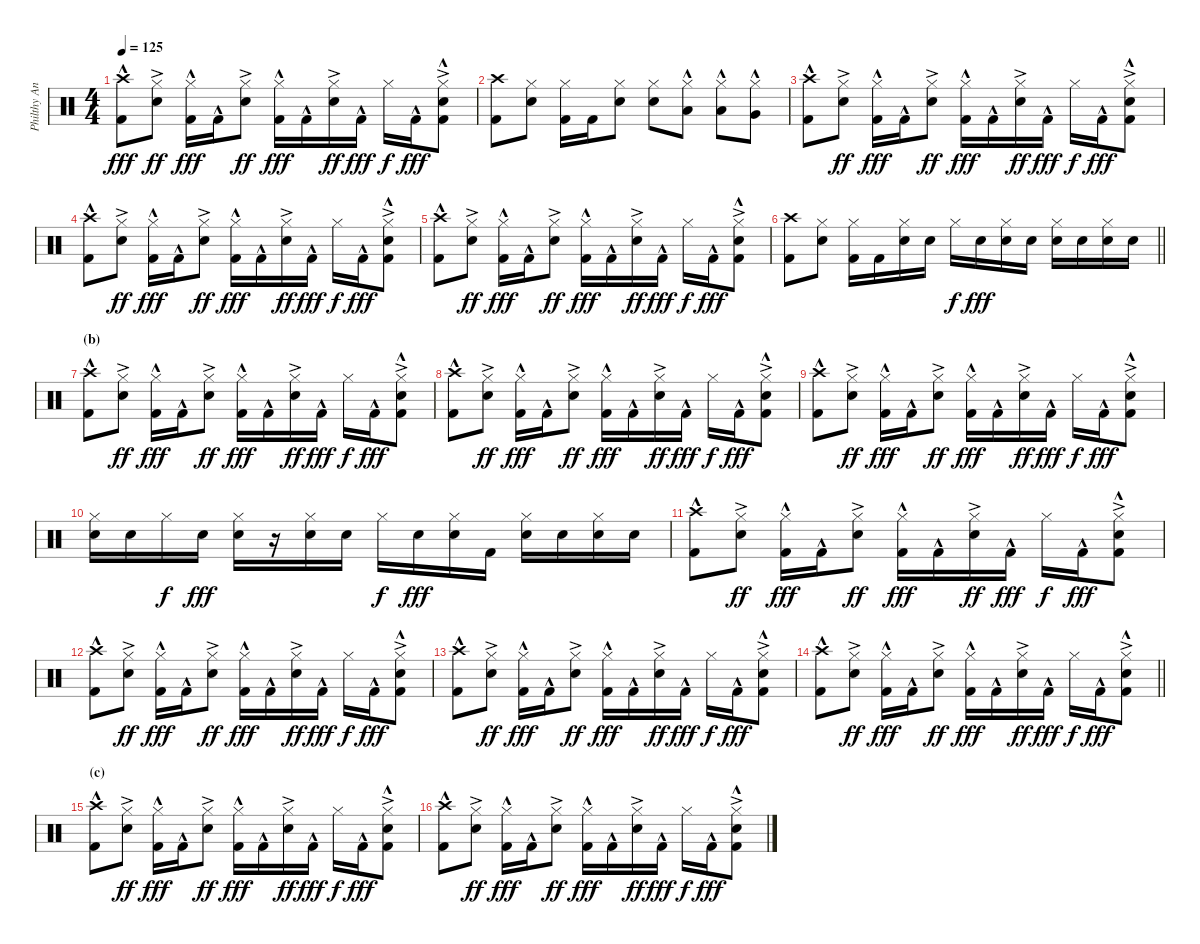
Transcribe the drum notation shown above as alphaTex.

\track ("Philthy Animal Taylor" "Philthy An") {instrument percussion}
\staff {score}
\articulation defaults
\ts (4 4)
\tempo 125
\clef neutral
\ks c
("Crash high (hit)" "Kick (hit) 2"{hac}).8{dy fff} ("Hi-Hat (closed)" "Electric Snare (hit)"{ac}).8{dy ff} ("Hi-Hat (closed)" "Kick (hit) 2"{hac}).16{dy fff} "Kick (hit) 2"{hac}.16 ("Hi-Hat (closed)" "Electric Snare (hit)"{ac}).8{dy ff} ("Hi-Hat (closed)" "Kick (hit) 2"{hac}).16{dy fff} "Kick (hit) 2"{hac}.16 ("Hi-Hat (closed)" "Electric Snare (hit)"{ac}).16{dy ff} "Kick (hit) 2"{hac}.16{dy fff} "Hi-Hat (closed)".16{dy f} "Kick (hit) 2"{hac}.16{dy fff} ("Hi-Hat (closed)" "Electric Snare (hit)"{ac} "Kick (hit) 2"{hac}).8 |
("Crash high (hit)" "Kick (hit) 2").8 ("Hi-Hat (closed)" "Electric Snare (hit)").8 ("Hi-Hat (closed)" "Kick (hit) 2").16 "Kick (hit) 2".16 ("Hi-Hat (closed)" "Electric Snare (hit)").8 ("Hi-Hat (closed)" "Electric Snare (hit)").8 ("Hi-Hat (closed)" "Low Tom (hit)"{hac}).8 ("Hi-Hat (closed)" "Low Tom (hit)"{hac}).8 ("Hi-Hat (closed)" "Very Low Tom (hit)"{hac}).8 |
("Crash high (hit)" "Kick (hit) 2"{hac}).8 ("Hi-Hat (closed)" "Electric Snare (hit)"{ac}).8{dy ff} ("Hi-Hat (closed)" "Kick (hit) 2"{hac}).16{dy fff} "Kick (hit) 2"{hac}.16 ("Hi-Hat (closed)" "Electric Snare (hit)"{ac}).8{dy ff} ("Hi-Hat (closed)" "Kick (hit) 2"{hac}).16{dy fff} "Kick (hit) 2"{hac}.16 ("Hi-Hat (closed)" "Electric Snare (hit)"{ac}).16{dy ff} "Kick (hit) 2"{hac}.16{dy fff} "Hi-Hat (closed)".16{dy f} "Kick (hit) 2"{hac}.16{dy fff} ("Hi-Hat (closed)" "Electric Snare (hit)"{ac} "Kick (hit) 2"{hac}).8 |
("Crash high (hit)" "Kick (hit) 2"{hac}).8 ("Hi-Hat (closed)" "Electric Snare (hit)"{ac}).8{dy ff} ("Hi-Hat (closed)" "Kick (hit) 2"{hac}).16{dy fff} "Kick (hit) 2"{hac}.16 ("Hi-Hat (closed)" "Electric Snare (hit)"{ac}).8{dy ff} ("Hi-Hat (closed)" "Kick (hit) 2"{hac}).16{dy fff} "Kick (hit) 2"{hac}.16 ("Hi-Hat (closed)" "Electric Snare (hit)"{ac}).16{dy ff} "Kick (hit) 2"{hac}.16{dy fff} "Hi-Hat (closed)".16{dy f} "Kick (hit) 2"{hac}.16{dy fff} ("Hi-Hat (closed)" "Electric Snare (hit)"{ac} "Kick (hit) 2"{hac}).8 |
("Crash high (hit)" "Kick (hit) 2"{hac}).8 ("Hi-Hat (closed)" "Electric Snare (hit)"{ac}).8{dy ff} ("Hi-Hat (closed)" "Kick (hit) 2"{hac}).16{dy fff} "Kick (hit) 2"{hac}.16 ("Hi-Hat (closed)" "Electric Snare (hit)"{ac}).8{dy ff} ("Hi-Hat (closed)" "Kick (hit) 2"{hac}).16{dy fff} "Kick (hit) 2"{hac}.16 ("Hi-Hat (closed)" "Electric Snare (hit)"{ac}).16{dy ff} "Kick (hit) 2"{hac}.16{dy fff} "Hi-Hat (closed)".16{dy f} "Kick (hit) 2"{hac}.16{dy fff} ("Hi-Hat (closed)" "Electric Snare (hit)"{ac} "Kick (hit) 2"{hac}).8 |
\barLineRight lightlight
("Crash high (hit)" "Kick (hit) 2").8 ("Hi-Hat (closed)" "Electric Snare (hit)").8 ("Hi-Hat (closed)" "Kick (hit) 2").16 "Kick (hit) 2".16 ("Hi-Hat (closed)" "Electric Snare (hit)").16 "Electric Snare (hit)".16 "Hi-Hat (closed)".16{dy f} "Electric Snare (hit)".16{dy fff} ("Hi-Hat (closed)" "Electric Snare (hit)").16 "Electric Snare (hit)".16 ("Hi-Hat (closed)" "Electric Snare (hit)").16 "Electric Snare (hit)".16 ("Hi-Hat (closed)" "Electric Snare (hit)").16 "Electric Snare (hit)".16 |
\section ("" "(b)")
("Crash high (hit)" "Kick (hit) 2"{hac}).8 ("Hi-Hat (closed)" "Electric Snare (hit)"{ac}).8{dy ff} ("Hi-Hat (closed)" "Kick (hit) 2"{hac}).16{dy fff} "Kick (hit) 2"{hac}.16 ("Hi-Hat (closed)" "Electric Snare (hit)"{ac}).8{dy ff} ("Hi-Hat (closed)" "Kick (hit) 2"{hac}).16{dy fff} "Kick (hit) 2"{hac}.16 ("Hi-Hat (closed)" "Electric Snare (hit)"{ac}).16{dy ff} "Kick (hit) 2"{hac}.16{dy fff} "Hi-Hat (closed)".16{dy f} "Kick (hit) 2"{hac}.16{dy fff} ("Hi-Hat (closed)" "Electric Snare (hit)"{ac} "Kick (hit) 2"{hac}).8 |
("Crash high (hit)" "Kick (hit) 2"{hac}).8 ("Hi-Hat (closed)" "Electric Snare (hit)"{ac}).8{dy ff} ("Hi-Hat (closed)" "Kick (hit) 2"{hac}).16{dy fff} "Kick (hit) 2"{hac}.16 ("Hi-Hat (closed)" "Electric Snare (hit)"{ac}).8{dy ff} ("Hi-Hat (closed)" "Kick (hit) 2"{hac}).16{dy fff} "Kick (hit) 2"{hac}.16 ("Hi-Hat (closed)" "Electric Snare (hit)"{ac}).16{dy ff} "Kick (hit) 2"{hac}.16{dy fff} "Hi-Hat (closed)".16{dy f} "Kick (hit) 2"{hac}.16{dy fff} ("Hi-Hat (closed)" "Electric Snare (hit)"{ac} "Kick (hit) 2"{hac}).8 |
("Crash high (hit)" "Kick (hit) 2"{hac}).8 ("Hi-Hat (closed)" "Electric Snare (hit)"{ac}).8{dy ff} ("Hi-Hat (closed)" "Kick (hit) 2"{hac}).16{dy fff} "Kick (hit) 2"{hac}.16 ("Hi-Hat (closed)" "Electric Snare (hit)"{ac}).8{dy ff} ("Hi-Hat (closed)" "Kick (hit) 2"{hac}).16{dy fff} "Kick (hit) 2"{hac}.16 ("Hi-Hat (closed)" "Electric Snare (hit)"{ac}).16{dy ff} "Kick (hit) 2"{hac}.16{dy fff} "Hi-Hat (closed)".16{dy f} "Kick (hit) 2"{hac}.16{dy fff} ("Hi-Hat (closed)" "Electric Snare (hit)"{ac} "Kick (hit) 2"{hac}).8 |
("Hi-Hat (closed)" "Electric Snare (hit)").16 "Electric Snare (hit)".16 "Hi-Hat (closed)".16{dy f} "Electric Snare (hit)".16{dy fff} ("Hi-Hat (closed)" "Electric Snare (hit)").16 r.16 ("Hi-Hat (closed)" "Electric Snare (hit)").16 "Electric Snare (hit)".16 "Hi-Hat (closed)".16{dy f} "Electric Snare (hit)".16{dy fff} ("Hi-Hat (closed)" "Electric Snare (hit)").16 "Kick (hit) 2".16 ("Hi-Hat (closed)" "Electric Snare (hit)").16 "Electric Snare (hit)".16 ("Hi-Hat (closed)" "Electric Snare (hit)").16 "Electric Snare (hit)".16 |
("Crash high (hit)" "Kick (hit) 2"{hac}).8 ("Hi-Hat (closed)" "Electric Snare (hit)"{ac}).8{dy ff} ("Hi-Hat (closed)" "Kick (hit) 2"{hac}).16{dy fff} "Kick (hit) 2"{hac}.16 ("Hi-Hat (closed)" "Electric Snare (hit)"{ac}).8{dy ff} ("Hi-Hat (closed)" "Kick (hit) 2"{hac}).16{dy fff} "Kick (hit) 2"{hac}.16 ("Hi-Hat (closed)" "Electric Snare (hit)"{ac}).16{dy ff} "Kick (hit) 2"{hac}.16{dy fff} "Hi-Hat (closed)".16{dy f} "Kick (hit) 2"{hac}.16{dy fff} ("Hi-Hat (closed)" "Electric Snare (hit)"{ac} "Kick (hit) 2"{hac}).8 |
("Crash high (hit)" "Kick (hit) 2"{hac}).8 ("Hi-Hat (closed)" "Electric Snare (hit)"{ac}).8{dy ff} ("Hi-Hat (closed)" "Kick (hit) 2"{hac}).16{dy fff} "Kick (hit) 2"{hac}.16 ("Hi-Hat (closed)" "Electric Snare (hit)"{ac}).8{dy ff} ("Hi-Hat (closed)" "Kick (hit) 2"{hac}).16{dy fff} "Kick (hit) 2"{hac}.16 ("Hi-Hat (closed)" "Electric Snare (hit)"{ac}).16{dy ff} "Kick (hit) 2"{hac}.16{dy fff} "Hi-Hat (closed)".16{dy f} "Kick (hit) 2"{hac}.16{dy fff} ("Hi-Hat (closed)" "Electric Snare (hit)"{ac} "Kick (hit) 2"{hac}).8 |
("Crash high (hit)" "Kick (hit) 2"{hac}).8 ("Hi-Hat (closed)" "Electric Snare (hit)"{ac}).8{dy ff} ("Hi-Hat (closed)" "Kick (hit) 2"{hac}).16{dy fff} "Kick (hit) 2"{hac}.16 ("Hi-Hat (closed)" "Electric Snare (hit)"{ac}).8{dy ff} ("Hi-Hat (closed)" "Kick (hit) 2"{hac}).16{dy fff} "Kick (hit) 2"{hac}.16 ("Hi-Hat (closed)" "Electric Snare (hit)"{ac}).16{dy ff} "Kick (hit) 2"{hac}.16{dy fff} "Hi-Hat (closed)".16{dy f} "Kick (hit) 2"{hac}.16{dy fff} ("Hi-Hat (closed)" "Electric Snare (hit)"{ac} "Kick (hit) 2"{hac}).8 |
\barLineRight lightlight
("Crash high (hit)" "Kick (hit) 2"{hac}).8 ("Hi-Hat (closed)" "Electric Snare (hit)"{ac}).8{dy ff} ("Hi-Hat (closed)" "Kick (hit) 2"{hac}).16{dy fff} "Kick (hit) 2"{hac}.16 ("Hi-Hat (closed)" "Electric Snare (hit)"{ac}).8{dy ff} ("Hi-Hat (closed)" "Kick (hit) 2"{hac}).16{dy fff} "Kick (hit) 2"{hac}.16 ("Hi-Hat (closed)" "Electric Snare (hit)"{ac}).16{dy ff} "Kick (hit) 2"{hac}.16{dy fff} "Hi-Hat (closed)".16{dy f} "Kick (hit) 2"{hac}.16{dy fff} ("Hi-Hat (closed)" "Electric Snare (hit)"{ac} "Kick (hit) 2"{hac}).8 |
\section ("" "(c)")
("Crash high (hit)" "Kick (hit) 2"{hac}).8 ("Hi-Hat (closed)" "Electric Snare (hit)"{ac}).8{dy ff} ("Hi-Hat (closed)" "Kick (hit) 2"{hac}).16{dy fff} "Kick (hit) 2"{hac}.16 ("Hi-Hat (closed)" "Electric Snare (hit)"{ac}).8{dy ff} ("Hi-Hat (closed)" "Kick (hit) 2"{hac}).16{dy fff} "Kick (hit) 2"{hac}.16 ("Hi-Hat (closed)" "Electric Snare (hit)"{ac}).16{dy ff} "Kick (hit) 2"{hac}.16{dy fff} "Hi-Hat (closed)".16{dy f} "Kick (hit) 2"{hac}.16{dy fff} ("Hi-Hat (closed)" "Electric Snare (hit)"{ac} "Kick (hit) 2"{hac}).8 |
("Crash high (hit)" "Kick (hit) 2"{hac}).8 ("Hi-Hat (closed)" "Electric Snare (hit)"{ac}).8{dy ff} ("Hi-Hat (closed)" "Kick (hit) 2"{hac}).16{dy fff} "Kick (hit) 2"{hac}.16 ("Hi-Hat (closed)" "Electric Snare (hit)"{ac}).8{dy ff} ("Hi-Hat (closed)" "Kick (hit) 2"{hac}).16{dy fff} "Kick (hit) 2"{hac}.16 ("Hi-Hat (closed)" "Electric Snare (hit)"{ac}).16{dy ff} "Kick (hit) 2"{hac}.16{dy fff} "Hi-Hat (closed)".16{dy f} "Kick (hit) 2"{hac}.16{dy fff} ("Hi-Hat (closed)" "Electric Snare (hit)"{ac} "Kick (hit) 2"{hac}).8
